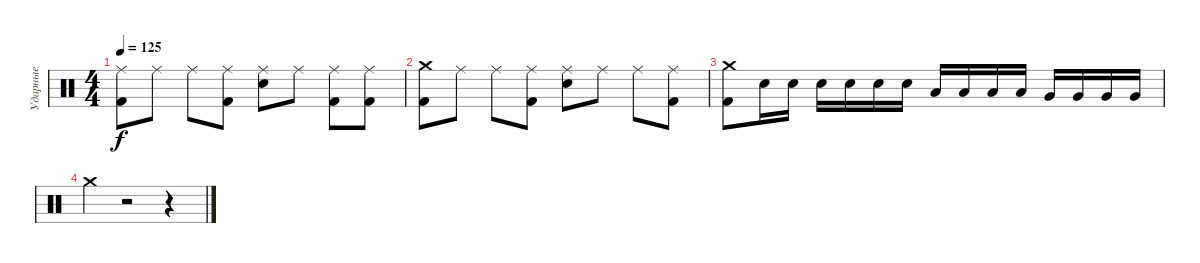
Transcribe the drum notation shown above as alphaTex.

\track ("Ударные" "Ударные") {instrument percussion}
\staff {score}
\articulation defaults
\ts (4 4)
\tempo 125
\clef neutral
\ks c
("Ride (middle)" "Kick (hit) 2").8{dy f} "Ride (middle)".8 "Ride (middle)".8 ("Ride (middle)" "Kick (hit) 2").8 ("Ride (middle)" "Electric Snare (hit)").8 "Ride (middle)".8 ("Ride (middle)" "Kick (hit) 2").8 ("Ride (middle)" "Kick (hit) 2").8 |
("Crash medium (hit)" "Kick (hit) 2").8 "Ride (middle)".8 "Ride (middle)".8 ("Ride (middle)" "Kick (hit) 2").8 ("Ride (middle)" "Electric Snare (hit)").8 "Ride (middle)".8 "Ride (middle)".8 ("Ride (middle)" "Kick (hit) 2").8 |
("Crash medium (hit)" "Kick (hit) 2").8 "Electric Snare (hit)".16 "Electric Snare (hit)".16 "Electric Snare (hit)".16 "Electric Snare (hit)".16 "Electric Snare (hit)".16 "Electric Snare (hit)".16 "Low Tom (hit)".16 "Low Tom (hit)".16 "Low Tom (hit)".16 "Low Tom (hit)".16 "Very Low Tom (hit)".16 "Very Low Tom (hit)".16 "Very Low Tom (hit)".16 "Very Low Tom (hit)".16 |
"Crash medium (hit)".4 r.2 r.4
